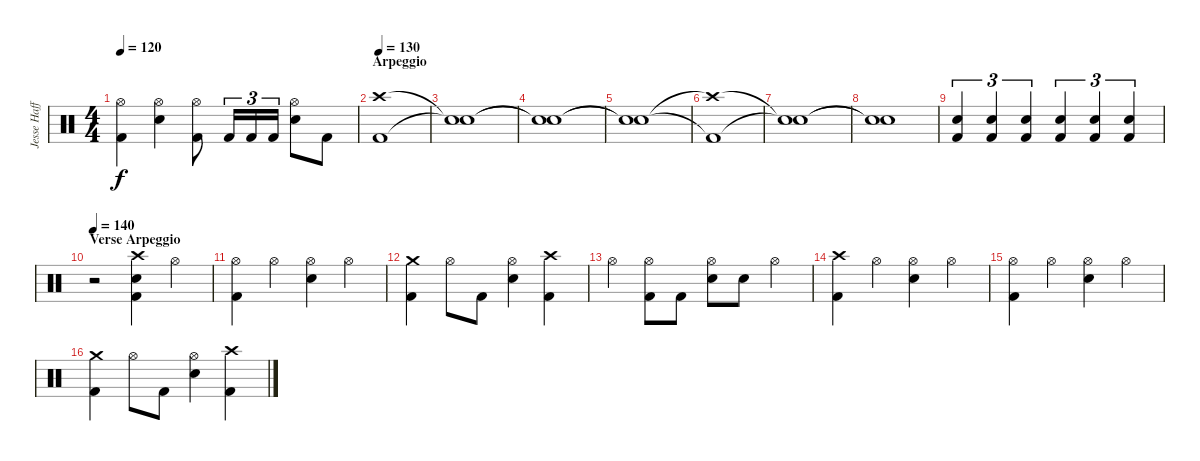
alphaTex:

\track ("Jesse Haff" "Jesse Haff") {instrument percussion}
\staff {score}
\articulation defaults
\ts (4 4)
\tempo 120
\clef neutral
\ks c
("Hi-Hat (open)" "Kick (hit) 2").4{dy f} ("Hi-Hat (open)" "Electric Snare (hit)").4 ("Hi-Hat (open)" "Kick (hit) 2").8 "Kick (hit) 2".16{tu (3 2)} "Kick (hit) 2".16{tu (3 2)} "Kick (hit) 2".16{tu (3 2)} ("Hi-Hat (open)" "Electric Snare (hit)").8 "Kick (hit) 2".8 |
\section ("" "Arpeggio")
\tempo 130
("Crash high (hit)" "Kick (hit) 2").1 |
("Snare (hit)"{t} "Snare (hit)"{t}).1 |
("Snare (hit)"{t} "Snare (hit)"{t}).1 |
("Snare (hit)"{t} "Snare (hit)"{t}).1 |
("Crash high (hit)"{t} "Kick (hit) 2"{t}).1 |
("Snare (hit)"{t} "Snare (hit)"{t}).1 |
("Snare (hit)"{t} "Snare (hit)"{t}).1 |
("Electric Snare (hit)" "Kick (hit) 2").4{tu (3 2)} ("Electric Snare (hit)" "Kick (hit) 2").4{tu (3 2)} ("Electric Snare (hit)" "Kick (hit) 2").4{tu (3 2)} ("Electric Snare (hit)" "Kick (hit) 2").4{tu (3 2)} ("Electric Snare (hit)" "Kick (hit) 2").4{tu (3 2)} ("Electric Snare (hit)" "Kick (hit) 2").4{tu (3 2)} |
\section ("" "Verse Arpeggio")
\tempo 140
r.2 ("Crash high (hit)" "Electric Snare (hit)" "Kick (hit) 2").4 "Hi-Hat (open)".4 |
("Hi-Hat (open)" "Kick (hit) 2").4 "Hi-Hat (open)".4 ("Hi-Hat (open)" "Electric Snare (hit)").4 "Hi-Hat (open)".4 |
("Crash medium (hit)" "Kick (hit) 2").4 "Hi-Hat (open)".8 "Kick (hit) 2".8 ("Hi-Hat (open)" "Electric Snare (hit)").4 ("Crash high (hit)" "Kick (hit) 2").4 |
"Hi-Hat (open)".4 ("Hi-Hat (open)" "Kick (hit) 2").8 "Kick (hit) 2".8 ("Hi-Hat (open)" "Electric Snare (hit)").8 "Electric Snare (hit)".8 "Hi-Hat (open)".4 |
("Crash high (hit)" "Kick (hit) 2").4 "Hi-Hat (open)".4 ("Hi-Hat (open)" "Electric Snare (hit)").4 "Hi-Hat (open)".4 |
("Hi-Hat (open)" "Kick (hit) 2").4 "Hi-Hat (open)".4 ("Hi-Hat (open)" "Electric Snare (hit)").4 "Hi-Hat (open)".4 |
("Crash medium (hit)" "Kick (hit) 2").4 "Hi-Hat (open)".8 "Kick (hit) 2".8 ("Hi-Hat (open)" "Electric Snare (hit)").4 ("Crash high (hit)" "Kick (hit) 2").4
